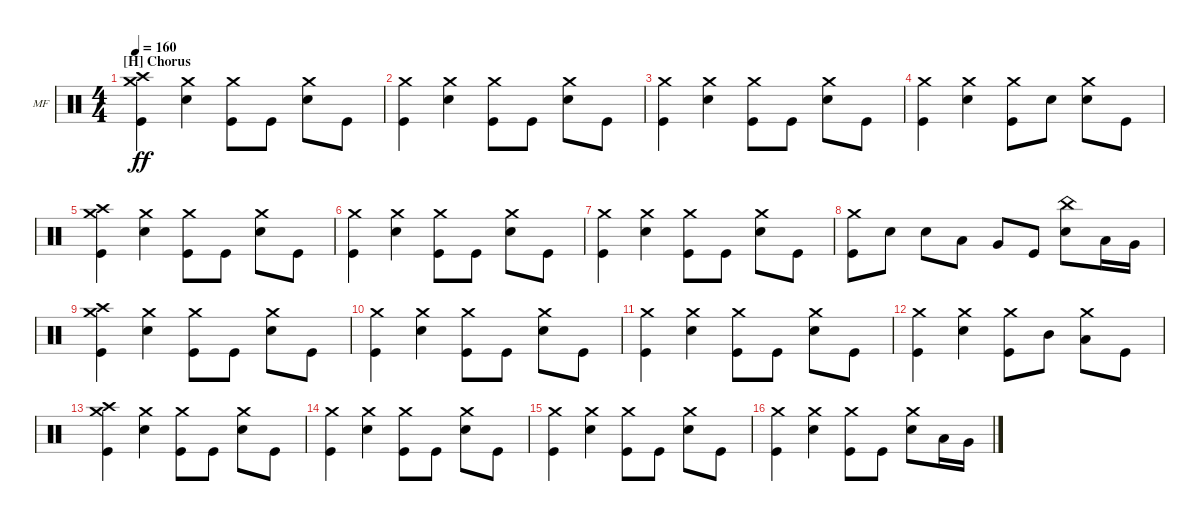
\defaultSystemsLayout 4
\bracketExtendMode groupsimilarinstruments
\firstSystemTrackNameOrientation horizontal
\otherSystemsTrackNameOrientation horizontal
\track ("Mike Felumlee - Drums" "MF") {instrument percussion}
\staff {score}
\articulation defaults
\ts (4 4)
\section ("H" "Chorus")
\tempo 160
\clef neutral
\ks c
("Crash high (hit)" "Crash medium (hit)" "Kick (hit)").4{dy ff} ("Snare (hit) 2" "Crash medium (hit)").4 ("Kick (hit)" "Crash medium (hit)").8 "Kick (hit)".8 ("Snare (hit) 2" "Crash medium (hit)").8 "Kick (hit)".8 |
("Kick (hit)" "Crash medium (hit)").4 ("Snare (hit) 2" "Crash medium (hit)").4 ("Kick (hit)" "Crash medium (hit)").8 "Kick (hit)".8 ("Snare (hit) 2" "Crash medium (hit)").8 "Kick (hit)".8 |
("Kick (hit)" "Crash medium (hit)").4 ("Snare (hit) 2" "Crash medium (hit)").4 ("Kick (hit)" "Crash medium (hit)").8 "Kick (hit)".8 ("Snare (hit) 2" "Crash medium (hit)").8 "Kick (hit)".8 |
("Kick (hit)" "Crash medium (hit)").4 ("Snare (hit) 2" "Crash medium (hit)").4 ("Kick (hit)" "Crash medium (hit)").8 "Snare (hit) 2".8 ("Snare (hit) 2" "Crash medium (hit)").8 "Kick (hit)".8 |
("Crash high (hit)" "Crash medium (hit)" "Kick (hit)").4 ("Snare (hit) 2" "Crash medium (hit)").4 ("Kick (hit)" "Crash medium (hit)").8 "Kick (hit)".8 ("Snare (hit) 2" "Crash medium (hit)").8 "Kick (hit)".8 |
("Kick (hit)" "Crash medium (hit)").4 ("Snare (hit) 2" "Crash medium (hit)").4 ("Kick (hit)" "Crash medium (hit)").8 "Kick (hit)".8 ("Snare (hit) 2" "Crash medium (hit)").8 "Kick (hit)".8 |
("Kick (hit)" "Crash medium (hit)").4 ("Snare (hit) 2" "Crash medium (hit)").4 ("Kick (hit)" "Crash medium (hit)").8 "Kick (hit)".8 ("Snare (hit) 2" "Crash medium (hit)").8 "Kick (hit)".8 |
("Kick (hit)" "Crash medium (hit)").8 "Snare (hit) 2".8 "Snare (hit) 2".8 "Low Tom (hit)".8 "Very Low Tom (hit)".8 "Kick (hit)".8 ("Snare (hit) 2" "China (hit)").8 "Low Tom (hit)".16 "Very Low Tom (hit)".16 |
("Crash high (hit)" "Crash medium (hit)" "Kick (hit)").4 ("Snare (hit) 2" "Crash medium (hit)").4 ("Kick (hit)" "Crash medium (hit)").8 "Kick (hit)".8 ("Snare (hit) 2" "Crash medium (hit)").8 "Kick (hit)".8 |
("Kick (hit)" "Crash medium (hit)").4 ("Snare (hit) 2" "Crash medium (hit)").4 ("Kick (hit)" "Crash medium (hit)").8 "Kick (hit)".8 ("Snare (hit) 2" "Crash medium (hit)").8 "Kick (hit)".8 |
("Kick (hit)" "Crash medium (hit)").4 ("Snare (hit) 2" "Crash medium (hit)").4 ("Kick (hit)" "Crash medium (hit)").8 "Kick (hit)".8 ("Snare (hit) 2" "Crash medium (hit)").8 "Kick (hit)".8 |
("Kick (hit)" "Crash medium (hit)").4 ("Snare (hit) 2" "Crash medium (hit)").4 ("Kick (hit)" "Crash medium (hit)").8 "Mid Tom (hit)".8 ("Crash medium (hit)" "Low Tom (hit)").8 "Kick (hit)".8 |
("Crash high (hit)" "Crash medium (hit)" "Kick (hit)").4 ("Snare (hit) 2" "Crash medium (hit)").4 ("Kick (hit)" "Crash medium (hit)").8 "Kick (hit)".8 ("Snare (hit) 2" "Crash medium (hit)").8 "Kick (hit)".8 |
("Kick (hit)" "Crash medium (hit)").4 ("Snare (hit) 2" "Crash medium (hit)").4 ("Kick (hit)" "Crash medium (hit)").8 "Kick (hit)".8 ("Snare (hit) 2" "Crash medium (hit)").8 "Kick (hit)".8 |
("Kick (hit)" "Crash medium (hit)").4 ("Snare (hit) 2" "Crash medium (hit)").4 ("Kick (hit)" "Crash medium (hit)").8 "Kick (hit)".8 ("Snare (hit) 2" "Crash medium (hit)").8 "Kick (hit)".8 |
("Kick (hit)" "Crash medium (hit)").4 ("Snare (hit) 2" "Crash medium (hit)").4 ("Kick (hit)" "Crash medium (hit)").8 "Kick (hit)".8 ("Snare (hit) 2" "Crash medium (hit)").8 "Low Tom (hit)".16 "Very Low Tom (hit)".16
